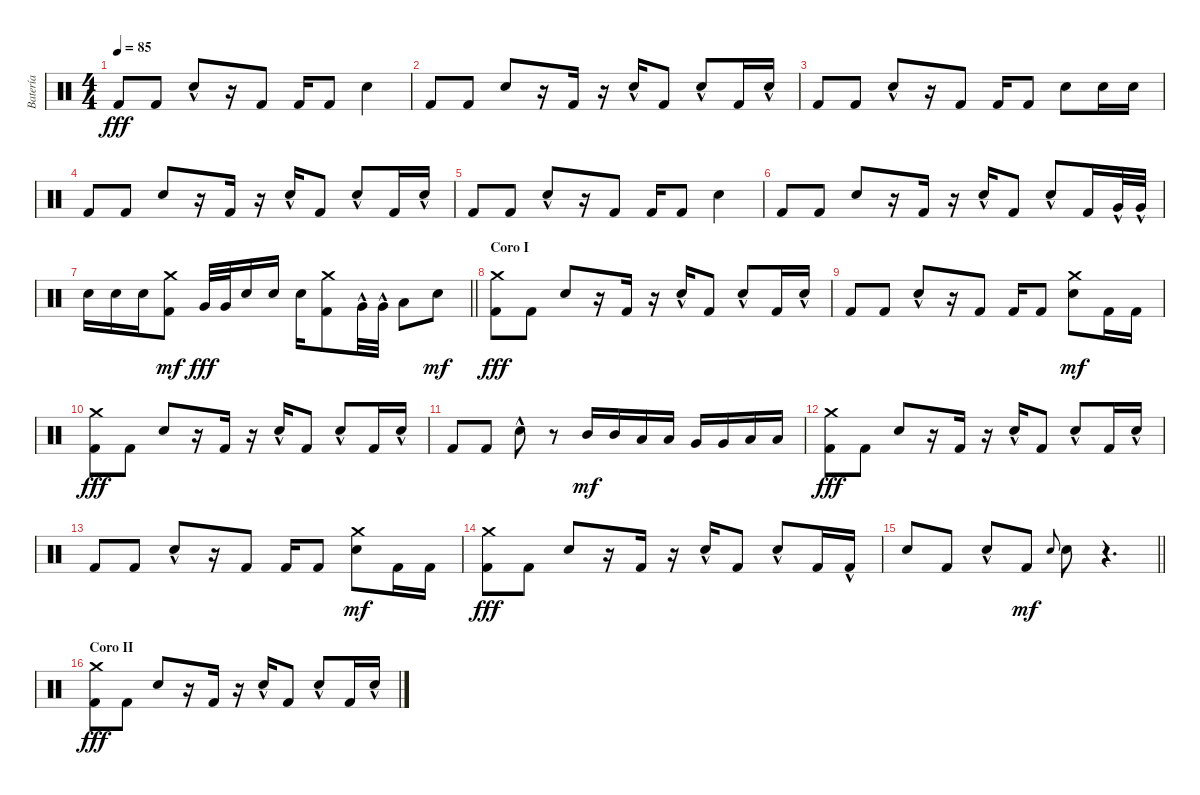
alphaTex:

\track ("Batería" "Batería") {instrument percussion}
\staff {score}
\articulation defaults
\ts (4 4)
\tempo 85
\clef neutral
\ks c "Kick (hit) 2".8{dy fff} "Kick (hit) 2".8 "Electric Snare (hit)"{hac}.8
r.16 "Kick (hit) 2".8 "Kick (hit) 2".16 "Kick (hit) 2".8 "Electric Snare (hit)".4 |
"Kick (hit) 2".8 "Kick (hit) 2".8 "Electric Snare (hit)".8 r.16 "Kick (hit) 2".16 r.16 "Electric Snare (hit)"{hac}.16 "Kick (hit) 2".8 "Electric Snare (hit)"{hac}.8 "Kick (hit) 2".16 "Electric Snare (hit)"{hac}.16 |
"Kick (hit) 2".8 "Kick (hit) 2".8 "Electric Snare (hit)"{hac}.8 r.16 "Kick (hit) 2".8 "Kick (hit) 2".16 "Kick (hit) 2".8 "Electric Snare (hit)".8 "Electric Snare (hit)".16 "Electric Snare (hit)".16 |
"Kick (hit) 2".8 "Kick (hit) 2".8 "Electric Snare (hit)".8 r.16 "Kick (hit) 2".16 r.16 "Electric Snare (hit)"{hac}.16 "Kick (hit) 2".8 "Electric Snare (hit)"{hac}.8 "Kick (hit) 2".16 "Electric Snare (hit)"{hac}.16 |
"Kick (hit) 2".8 "Kick (hit) 2".8 "Electric Snare (hit)"{hac}.8 r.16 "Kick (hit) 2".8 "Kick (hit) 2".16 "Kick (hit) 2".8 "Electric Snare (hit)".4 |
"Kick (hit) 2".8 "Kick (hit) 2".8 "Electric Snare (hit)".8 r.16 "Kick (hit) 2".16 r.16 "Electric Snare (hit)"{hac}.16 "Kick (hit) 2".8 "Electric Snare (hit)"{hac}.8 "Kick (hit) 2".16 "Very Low Tom (hit)"{hac}.32 "Very Low Tom (hit)"{hac}.32 |
\barLineRight lightlight "Electric Snare (hit)".16 "Electric Snare (hit)".16 "Electric Snare (hit)".16
("Kick (hit) 2" "Crash medium (hit)").8{dy mf} "Very Low Tom (hit)".32{dy fff} "Very Low Tom (hit)".32 "Electric Snare (hit)".16 "Electric Snare (hit)".16 "Electric Snare (hit)".16 ("Kick (hit) 2" "Crash medium (hit)").8 "Very Low Tom (hit)"{hac}.32 "Very Low Tom (hit)"{hac}.32 "Low Tom (hit)".8 "Electric Snare (hit)".8{dy mf} |
\section ("" "Coro I")
("Kick (hit) 2" "Crash medium (hit)").8{dy fff} "Kick (hit) 2".8 "Electric Snare (hit)".8 r.16 "Kick (hit) 2".16 r.16 "Electric Snare (hit)"{hac}.16 "Kick (hit) 2".8 "Electric Snare (hit)"{hac}.8 "Kick (hit) 2".16 "Electric Snare (hit)"{hac}.16 |
"Kick (hit) 2".8 "Kick (hit) 2".8 "Electric Snare (hit)"{hac}.8 r.16 "Kick (hit) 2".8 "Kick (hit) 2".16 "Kick (hit) 2".8 ("Electric Snare (hit)" "Crash medium (hit)").8{dy mf} "Kick (hit) 2".16 "Kick (hit) 2".16 |
("Kick (hit) 2" "Crash medium (hit)").8{dy fff} "Kick (hit) 2".8 "Electric Snare (hit)".8 r.16 "Kick (hit) 2".16 r.16 "Electric Snare (hit)"{hac}.16 "Kick (hit) 2".8 "Electric Snare (hit)"{hac}.8 "Kick (hit) 2".16 "Electric Snare (hit)"{hac}.16 |
"Kick (hit) 2".8 "Kick (hit) 2".8 "Electric Snare (hit)"{hac}.8 r.8 "Mid Tom (hit)".16{dy mf} "Mid Tom (hit)".16 "Low Tom (hit)".16 "Low Tom (hit)".16 "Very Low Tom (hit)".16 "Very Low Tom (hit)".16 "Low Floor Tom (hit)".16 "Low Floor Tom (hit)".16 |
("Kick (hit) 2" "Crash medium (hit)").8{dy fff} "Kick (hit) 2".8 "Electric Snare (hit)".8 r.16 "Kick (hit) 2".16 r.16 "Electric Snare (hit)"{hac}.16 "Kick (hit) 2".8 "Electric Snare (hit)"{hac}.8 "Kick (hit) 2".16 "Electric Snare (hit)"{hac}.16 |
"Kick (hit) 2".8 "Kick (hit) 2".8 "Electric Snare (hit)"{hac}.8 r.16 "Kick (hit) 2".8 "Kick (hit) 2".16 "Kick (hit) 2".8 ("Electric Snare (hit)" "Crash medium (hit)").8{dy mf} "Kick (hit) 2".16 "Kick (hit) 2".16 |
("Kick (hit) 2" "Crash medium (hit)").8{dy fff} "Kick (hit) 2".8 "Electric Snare (hit)".8 r.16 "Kick (hit) 2".16 r.16 "Electric Snare (hit)"{hac}.16 "Kick (hit) 2".8 "Electric Snare (hit)"{hac}.8 "Kick (hit) 2".16 "Kick (hit) 2"{hac}.16 |
\barLineRight lightlight "Electric Snare (hit)".8 "Kick (hit) 2".8 "Electric Snare (hit)"{hac}.8 "Kick (hit) 2".8{dy mf} "Electric Snare (hit)".8{gr onbeat} "Electric Snare (hit)".8
r.4{d} |
\section ("" "Coro II")
("Kick (hit) 2" "Crash medium (hit)").8{dy fff} "Kick (hit) 2".8 "Electric Snare (hit)".8 r.16 "Kick (hit) 2".16 r.16 "Electric Snare (hit)"{hac}.16 "Kick (hit) 2".8 "Electric Snare (hit)"{hac}.8 "Kick (hit) 2".16 "Electric Snare (hit)"{hac}.16
